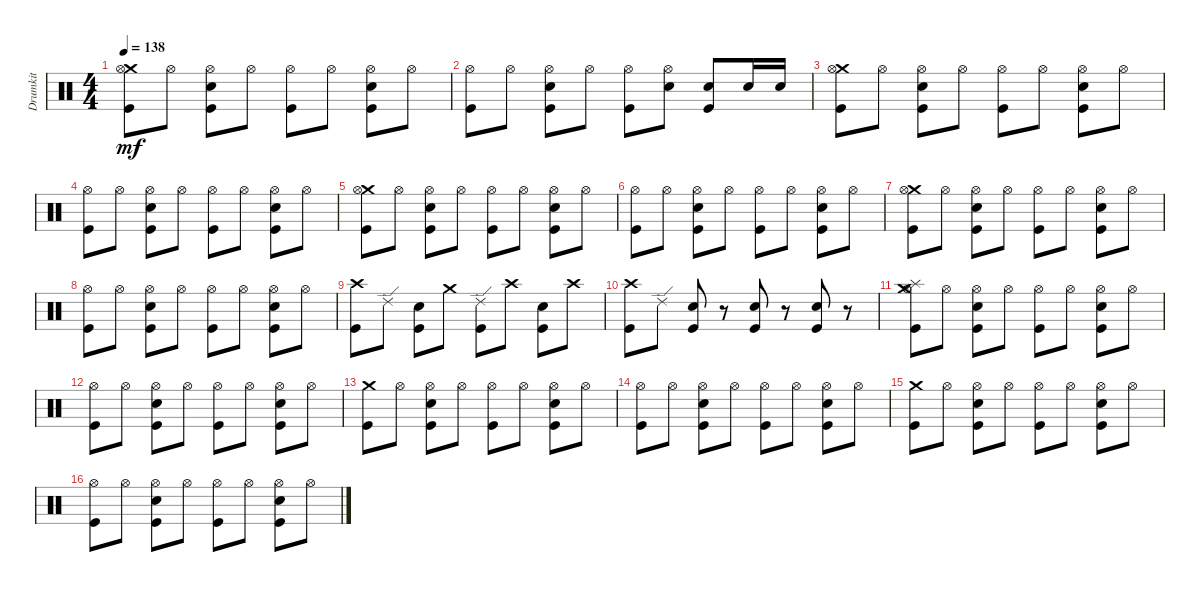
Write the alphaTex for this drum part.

\track ("Drumkit" "Drumkit") {instrument percussion}
\staff {score}
\articulation defaults
\ts (4 4)
\tempo 138
\clef neutral
\ks c
("Kick (hit)" "Crash medium (hit)" "Hi-Hat (open)").8{dy mf} "Hi-Hat (open)".8 ("Snare (hit) 2" "Hi-Hat (open)" "Kick (hit)").8 "Hi-Hat (open)".8 ("Kick (hit)" "Hi-Hat (open)").8 "Hi-Hat (open)".8 ("Snare (hit) 2" "Hi-Hat (open)" "Kick (hit)").8 "Hi-Hat (open)".8 |
("Kick (hit)" "Hi-Hat (open)").8 "Hi-Hat (open)".8 ("Snare (hit) 2" "Hi-Hat (open)" "Kick (hit)").8 "Hi-Hat (open)".8 ("Kick (hit)" "Hi-Hat (open)").8 ("Snare (hit) 2" "Hi-Hat (open)").8 ("Snare (hit) 2" "Kick (hit)").8 "Snare (hit) 2".16 "Snare (hit) 2".16 |
("Kick (hit)" "Crash medium (hit)" "Hi-Hat (open)").8 "Hi-Hat (open)".8 ("Snare (hit) 2" "Hi-Hat (open)" "Kick (hit)").8 "Hi-Hat (open)".8 ("Kick (hit)" "Hi-Hat (open)").8 "Hi-Hat (open)".8 ("Snare (hit) 2" "Hi-Hat (open)" "Kick (hit)").8 "Hi-Hat (open)".8 |
("Kick (hit)" "Hi-Hat (open)").8 "Hi-Hat (open)".8 ("Snare (hit) 2" "Hi-Hat (open)" "Kick (hit)").8 "Hi-Hat (open)".8 ("Kick (hit)" "Hi-Hat (open)").8 "Hi-Hat (open)".8 ("Snare (hit) 2" "Hi-Hat (open)" "Kick (hit)").8 "Hi-Hat (open)".8 |
("Kick (hit)" "Crash medium (hit)" "Hi-Hat (open)").8 "Hi-Hat (open)".8 ("Snare (hit) 2" "Hi-Hat (open)" "Kick (hit)").8 "Hi-Hat (open)".8 ("Kick (hit)" "Hi-Hat (open)").8 "Hi-Hat (open)".8 ("Snare (hit) 2" "Hi-Hat (open)" "Kick (hit)").8 "Hi-Hat (open)".8 |
("Kick (hit)" "Hi-Hat (open)").8 "Hi-Hat (open)".8 ("Snare (hit) 2" "Hi-Hat (open)" "Kick (hit)").8 "Hi-Hat (open)".8 ("Kick (hit)" "Hi-Hat (open)").8 "Hi-Hat (open)".8 ("Snare (hit) 2" "Hi-Hat (open)" "Kick (hit)").8 "Hi-Hat (open)".8 |
("Kick (hit)" "Crash medium (hit)" "Hi-Hat (open)").8 "Hi-Hat (open)".8 ("Snare (hit) 2" "Hi-Hat (open)" "Kick (hit)").8 "Hi-Hat (open)".8 ("Kick (hit)" "Hi-Hat (open)").8 "Hi-Hat (open)".8 ("Snare (hit) 2" "Hi-Hat (open)" "Kick (hit)").8 "Hi-Hat (open)".8 |
("Kick (hit)" "Hi-Hat (open)").8 "Hi-Hat (open)".8 ("Snare (hit) 2" "Hi-Hat (open)" "Kick (hit)").8 "Hi-Hat (open)".8 ("Kick (hit)" "Hi-Hat (open)").8 "Hi-Hat (open)".8 ("Snare (hit) 2" "Hi-Hat (open)" "Kick (hit)").8 "Hi-Hat (open)".8 |
("Crash high (hit)" "Kick (hit)").8 "Ride (edge) 2".8 ("Snare (hit) 2" "Kick (hit)").8 "Crash medium (hit)".8 ("Ride (edge) 2" "Kick (hit)").8 "Crash high (hit)".8 ("Snare (hit) 2" "Kick (hit)").8 "Crash high (hit)".8 |
("Crash high (hit)" "Kick (hit)").8 "Ride (edge) 2".8 ("Kick (hit)" "Snare (hit) 2").8 r.8 ("Kick (hit)" "Snare (hit) 2").8 r.8 ("Kick (hit)" "Snare (hit) 2").8 r.8 |
("Splash (hit)" "Crash medium (hit)" "Hi-Hat (open)" "Kick (hit)").8 "Hi-Hat (open)".8 ("Snare (hit) 2" "Hi-Hat (open)" "Kick (hit)").8 "Hi-Hat (open)".8 ("Kick (hit)" "Hi-Hat (open)").8 "Hi-Hat (open)".8 ("Snare (hit) 2" "Hi-Hat (open)" "Kick (hit)").8 "Hi-Hat (open)".8 |
("Kick (hit)" "Hi-Hat (open)").8 "Hi-Hat (open)".8 ("Snare (hit) 2" "Hi-Hat (open)" "Kick (hit)").8 "Hi-Hat (open)".8 ("Kick (hit)" "Hi-Hat (open)").8 "Hi-Hat (open)".8 ("Snare (hit) 2" "Hi-Hat (open)" "Kick (hit)").8 "Hi-Hat (open)".8 |
("Kick (hit)" "Crash medium (hit)").8 "Hi-Hat (open)".8 ("Snare (hit) 2" "Hi-Hat (open)" "Kick (hit)").8 "Hi-Hat (open)".8 ("Kick (hit)" "Hi-Hat (open)").8 "Hi-Hat (open)".8 ("Snare (hit) 2" "Hi-Hat (open)" "Kick (hit)").8 "Hi-Hat (open)".8 |
("Kick (hit)" "Hi-Hat (open)").8 "Hi-Hat (open)".8 ("Snare (hit) 2" "Hi-Hat (open)" "Kick (hit)").8 "Hi-Hat (open)".8 ("Kick (hit)" "Hi-Hat (open)").8 "Hi-Hat (open)".8 ("Snare (hit) 2" "Hi-Hat (open)" "Kick (hit)").8 "Hi-Hat (open)".8 |
("Kick (hit)" "Crash medium (hit)").8 "Hi-Hat (open)".8 ("Snare (hit) 2" "Hi-Hat (open)" "Kick (hit)").8 "Hi-Hat (open)".8 ("Kick (hit)" "Hi-Hat (open)").8 "Hi-Hat (open)".8 ("Snare (hit) 2" "Hi-Hat (open)" "Kick (hit)").8 "Hi-Hat (open)".8 |
("Kick (hit)" "Hi-Hat (open)").8 "Hi-Hat (open)".8 ("Snare (hit) 2" "Hi-Hat (open)" "Kick (hit)").8 "Hi-Hat (open)".8 ("Kick (hit)" "Hi-Hat (open)").8 "Hi-Hat (open)".8 ("Snare (hit) 2" "Hi-Hat (open)" "Kick (hit)").8 "Hi-Hat (open)".8
